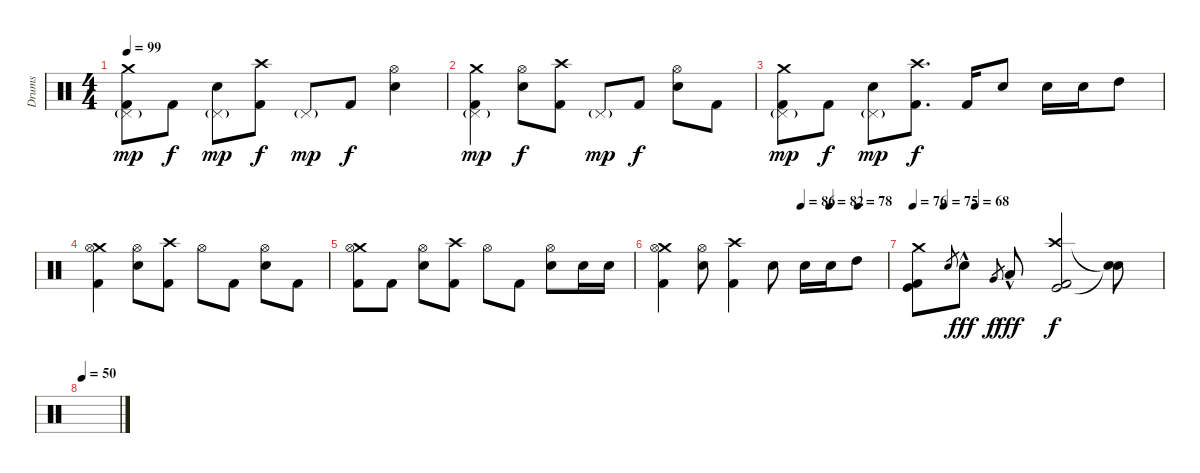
\track ("Drums" "Drums") {instrument percussion}
\staff {score}
\articulation defaults
\ts (4 4)
\tempo 99
\clef neutral
\ks c
("Crash medium (hit)" "Kick (hit) 2" "Pedal Hi-Hat (hit)"{g}).8{dy mp} "Kick (hit) 2".8{dy f} ("Electric Snare (hit)" "Pedal Hi-Hat (hit)"{g}).8{dy mp} ("Crash high (hit)" "Kick (hit) 2").8{dy f} "Pedal Hi-Hat (hit)"{g}.8{dy mp} "Kick (hit) 2".8{dy f} ("Electric Snare (hit)" "Hi-Hat (open)").4 |
("Crash medium (hit)" "Kick (hit) 2" "Pedal Hi-Hat (hit)"{g}).4{dy mp} ("Electric Snare (hit)" "Hi-Hat (open)").8{dy f} ("Crash high (hit)" "Kick (hit) 2").8 "Pedal Hi-Hat (hit)"{g}.8{dy mp} "Kick (hit) 2".8{dy f} ("Electric Snare (hit)" "Hi-Hat (open)").8 "Kick (hit) 2".8 |
("Crash medium (hit)" "Kick (hit) 2" "Pedal Hi-Hat (hit)"{g}).8{dy mp} "Kick (hit) 2".8{dy f} ("Electric Snare (hit)" "Pedal Hi-Hat (hit)"{g}).8{dy mp} ("Crash high (hit)" "Kick (hit) 2").8{d dy f} "Kick (hit) 2".16 "Electric Snare (hit)".8 "Electric Snare (hit)".16 "Electric Snare (hit)".16 "High Tom (hit)".8 |
("Crash medium (hit)" "Kick (hit) 2" "Hi-Hat (open)").4 ("Electric Snare (hit)" "Hi-Hat (open)").8 ("Crash high (hit)" "Kick (hit) 2").8 "Hi-Hat (open)".8 "Kick (hit) 2".8 ("Electric Snare (hit)" "Hi-Hat (open)").8 "Kick (hit) 2".8 |
("Crash medium (hit)" "Kick (hit) 2" "Hi-Hat (open)").8 "Kick (hit) 2".8 ("Electric Snare (hit)" "Hi-Hat (open)").8 ("Crash high (hit)" "Kick (hit) 2").8 "Hi-Hat (open)".8 "Kick (hit) 2".8 ("Electric Snare (hit)" "Hi-Hat (open)").8 "Electric Snare (hit)".16 "Electric Snare (hit)".16 |
\tempo (86 0.625)
\tempo (82 0.75)
\tempo (78 0.875)
("Crash medium (hit)" "Kick (hit) 2" "Hi-Hat (open)").4 ("Electric Snare (hit)" "Hi-Hat (open)").8 ("Crash high (hit)" "Kick (hit) 2").4 "Electric Snare (hit)".8 "Electric Snare (hit)".16 "Electric Snare (hit)".16 "High Tom (hit)".8 |
\tempo 76
\tempo (75 0.125)
\tempo (68 0.25)
("Crash medium (hit)" "Kick (hit)" "Kick (hit) 2").8 "Electric Snare (hit)".8{gr} "Electric Snare (hit)"{hac}.8{dy fff} "Very Low Tom (hit)".8{gr dy f} "Low Floor Tom (hit)"{hac}.8{dy fff} ("Crash high (hit)" "Kick (hit)" "Kick (hit) 2").2{dy f} ("Snare (hit)"{t} "Snare (hit)"{t}).8 |
\tempo 50
